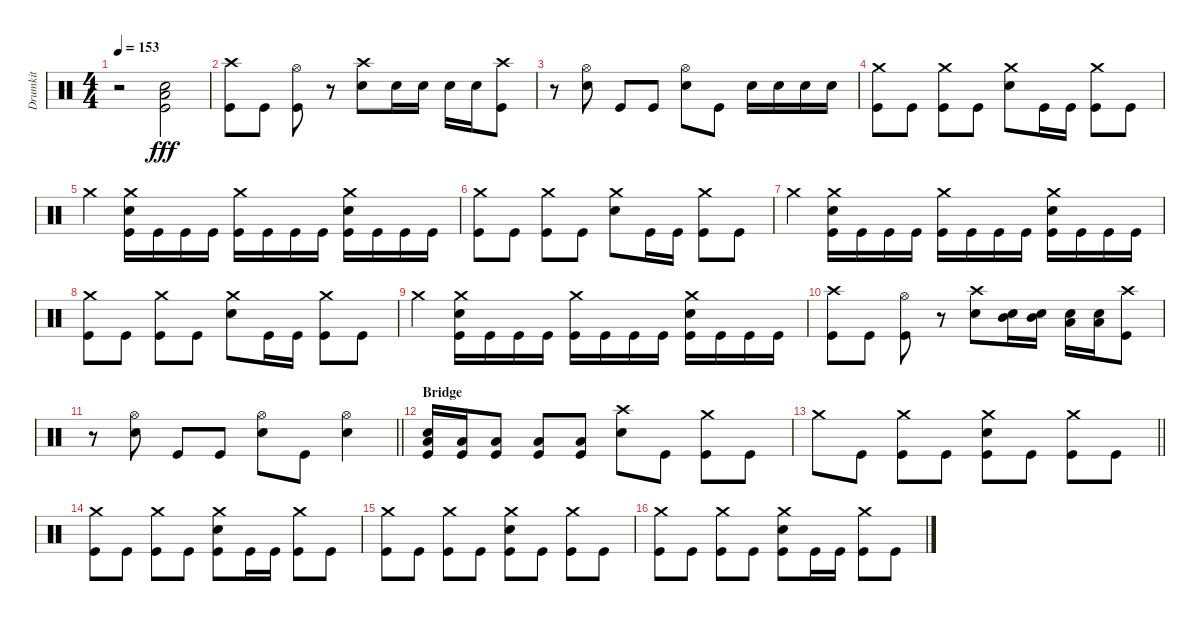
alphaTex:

\track ("Drumkit" "Drumkit") {instrument percussion}
\staff {score}
\articulation defaults
\ts (4 4)
\tempo 153
\clef neutral
\ks c
r.2{dy fff} ("Low Floor Tom (hit)" "Kick (hit)" "Snare (hit) 2").2 |
("Crash high (hit)" "Kick (hit)").8 "Kick (hit)".8 ("Hi-Hat (open)" "Kick (hit)").8 r.8 ("Crash high (hit)" "Snare (hit) 2").8 "Snare (hit) 2".16 "Snare (hit) 2".16 "Snare (hit) 2".16 "Snare (hit) 2".16 ("Crash high (hit)" "Kick (hit)").8 |
r.8 ("Hi-Hat (open)" "Snare (hit) 2").8 "Kick (hit)".8 "Kick (hit)".8 ("Hi-Hat (open)" "Snare (hit) 2").8 "Kick (hit)".8 "Snare (hit) 2".16 "Snare (hit) 2".16 "Snare (hit) 2".16 "Snare (hit) 2".16 |
("Crash medium (hit)" "Kick (hit)").8 "Kick (hit)".8 ("Crash medium (hit)" "Kick (hit)").8 "Kick (hit)".8 ("Crash medium (hit)" "Snare (hit) 2").8 "Kick (hit)".16 "Kick (hit)".16 ("Crash medium (hit)" "Kick (hit)").8 "Kick (hit)".8 |
"Crash medium (hit)".4 ("Crash medium (hit)" "Snare (hit) 2" "Kick (hit)").16 "Kick (hit)".16 "Kick (hit)".16 "Kick (hit)".16 ("Crash medium (hit)" "Kick (hit)").16 "Kick (hit)".16 "Kick (hit)".16 "Kick (hit)".16 ("Crash medium (hit)" "Snare (hit) 2" "Kick (hit)").16 "Kick (hit)".16 "Kick (hit)".16 "Kick (hit)".16 |
("Crash medium (hit)" "Kick (hit)").8 "Kick (hit)".8 ("Crash medium (hit)" "Kick (hit)").8 "Kick (hit)".8 ("Crash medium (hit)" "Snare (hit) 2").8 "Kick (hit)".16 "Kick (hit)".16 ("Crash medium (hit)" "Kick (hit)").8 "Kick (hit)".8 |
"Crash medium (hit)".4 ("Crash medium (hit)" "Snare (hit) 2" "Kick (hit)").16 "Kick (hit)".16 "Kick (hit)".16 "Kick (hit)".16 ("Crash medium (hit)" "Kick (hit)").16 "Kick (hit)".16 "Kick (hit)".16 "Kick (hit)".16 ("Crash medium (hit)" "Snare (hit) 2" "Kick (hit)").16 "Kick (hit)".16 "Kick (hit)".16 "Kick (hit)".16 |
("Crash medium (hit)" "Kick (hit)").8 "Kick (hit)".8 ("Crash medium (hit)" "Kick (hit)").8 "Kick (hit)".8 ("Crash medium (hit)" "Snare (hit) 2").8 "Kick (hit)".16 "Kick (hit)".16 ("Crash medium (hit)" "Kick (hit)").8 "Kick (hit)".8 |
"Crash medium (hit)".4 ("Crash medium (hit)" "Snare (hit) 2" "Kick (hit)").16 "Kick (hit)".16 "Kick (hit)".16 "Kick (hit)".16 ("Crash medium (hit)" "Kick (hit)").16 "Kick (hit)".16 "Kick (hit)".16 "Kick (hit)".16 ("Crash medium (hit)" "Snare (hit) 2" "Kick (hit)").16 "Kick (hit)".16 "Kick (hit)".16 "Kick (hit)".16 |
("Crash high (hit)" "Kick (hit)").8 "Kick (hit)".8 ("Hi-Hat (open)" "Kick (hit)").8 r.8 ("Crash high (hit)" "Snare (hit) 2").8 ("Snare (hit) 2" "Mid Tom (hit)").16 ("Snare (hit) 2" "Mid Tom (hit)").16 ("Snare (hit) 2" "Low Tom (hit)").16 ("Snare (hit) 2" "Low Tom (hit)").16 ("Crash high (hit)" "Kick (hit)").8 |
\barLineRight lightlight
r.8 ("Hi-Hat (open)" "Snare (hit) 2").8 "Kick (hit)".8 "Kick (hit)".8 ("Hi-Hat (open)" "Snare (hit) 2").8 "Kick (hit)".8 ("Hi-Hat (open)" "Snare (hit) 2").4 |
\section ("" "Bridge")
("Low Floor Tom (hit)" "Snare (hit) 2" "Kick (hit)").16 ("Low Floor Tom (hit)" "Kick (hit)").16 ("Low Floor Tom (hit)" "Kick (hit)").8 ("Low Floor Tom (hit)" "Kick (hit)").8 ("Low Floor Tom (hit)" "Kick (hit)").8 ("Crash high (hit)" "Snare (hit) 2").8 "Kick (hit)".8 ("Crash medium (hit)" "Kick (hit)").8 "Kick (hit)".8 |
\barLineRight lightlight "Crash medium (hit)".8 "Kick (hit)".8
("Crash medium (hit)" "Kick (hit)").8 "Kick (hit)".8 ("Crash medium (hit)" "Snare (hit) 2" "Kick (hit)").8 "Kick (hit)".8 ("Crash medium (hit)" "Kick (hit)").8 "Kick (hit)".8 |
("Crash medium (hit)" "Kick (hit)").8 "Kick (hit)".8 ("Crash medium (hit)" "Kick (hit)").8 "Kick (hit)".8 ("Crash medium (hit)" "Snare (hit) 2" "Kick (hit)").8 "Kick (hit)".16 "Kick (hit)".16 ("Crash medium (hit)" "Kick (hit)").8 "Kick (hit)".8 |
("Crash medium (hit)" "Kick (hit)").8 "Kick (hit)".8 ("Crash medium (hit)" "Kick (hit)").8 "Kick (hit)".8 ("Crash medium (hit)" "Snare (hit) 2" "Kick (hit)").8 "Kick (hit)".8 ("Crash medium (hit)" "Kick (hit)").8 "Kick (hit)".8 |
("Crash medium (hit)" "Kick (hit)").8 "Kick (hit)".8 ("Crash medium (hit)" "Kick (hit)").8 "Kick (hit)".8 ("Crash medium (hit)" "Snare (hit) 2" "Kick (hit)").8 "Kick (hit)".16 "Kick (hit)".16 ("Crash medium (hit)" "Kick (hit)").8 "Kick (hit)".8
